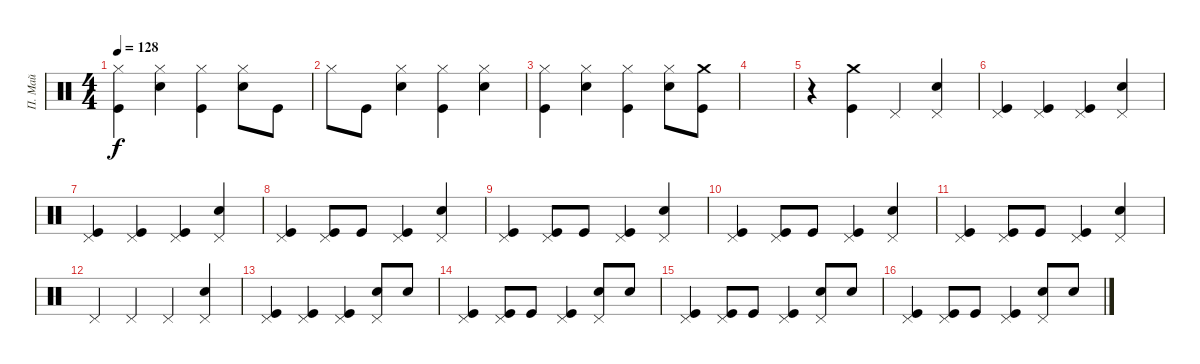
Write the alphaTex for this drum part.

\track ("П. Май" "П. Май") {instrument percussion}
\staff {score}
\articulation defaults
\ts (4 4)
\tempo 128
\clef neutral
\ks c
("Hi-Hat (closed)" "Kick (hit)").4{dy f} ("Hi-Hat (closed)" "Snare (hit) 2").4 ("Hi-Hat (closed)" "Kick (hit)").4 ("Hi-Hat (closed)" "Snare (hit) 2").8 "Kick (hit)".8 |
"Hi-Hat (closed)".8 "Kick (hit)".8 ("Hi-Hat (closed)" "Snare (hit) 2").4 ("Hi-Hat (closed)" "Kick (hit)").4 ("Hi-Hat (closed)" "Snare (hit) 2").4 |
("Hi-Hat (closed)" "Kick (hit)").4 ("Hi-Hat (closed)" "Snare (hit) 2").4 ("Hi-Hat (closed)" "Kick (hit)").4 ("Hi-Hat (closed)" "Snare (hit) 2").8 ("Crash medium (hit)" "Kick (hit)").8 |
|
r.4 ("Crash medium (hit)" "Kick (hit)").4 "Pedal Hi-Hat (hit)".4 ("Pedal Hi-Hat (hit)" "Snare (hit) 2").4 |
("Pedal Hi-Hat (hit)" "Kick (hit)").4 ("Pedal Hi-Hat (hit)" "Kick (hit)").4 ("Pedal Hi-Hat (hit)" "Kick (hit)").4 ("Pedal Hi-Hat (hit)" "Snare (hit) 2").4 |
("Pedal Hi-Hat (hit)" "Kick (hit)").4 ("Pedal Hi-Hat (hit)" "Kick (hit)").4 ("Pedal Hi-Hat (hit)" "Kick (hit)").4 ("Pedal Hi-Hat (hit)" "Snare (hit) 2").4 |
("Pedal Hi-Hat (hit)" "Kick (hit)").4 ("Pedal Hi-Hat (hit)" "Kick (hit)").8 "Kick (hit)".8 ("Pedal Hi-Hat (hit)" "Kick (hit)").4 ("Pedal Hi-Hat (hit)" "Snare (hit) 2").4 |
("Pedal Hi-Hat (hit)" "Kick (hit)").4 ("Pedal Hi-Hat (hit)" "Kick (hit)").8 "Kick (hit)".8 ("Pedal Hi-Hat (hit)" "Kick (hit)").4 ("Pedal Hi-Hat (hit)" "Snare (hit) 2").4 |
("Pedal Hi-Hat (hit)" "Kick (hit)").4 ("Pedal Hi-Hat (hit)" "Kick (hit)").8 "Kick (hit)".8 ("Pedal Hi-Hat (hit)" "Kick (hit)").4 ("Pedal Hi-Hat (hit)" "Snare (hit) 2").4 |
("Pedal Hi-Hat (hit)" "Kick (hit)").4 ("Pedal Hi-Hat (hit)" "Kick (hit)").8 "Kick (hit)".8 ("Pedal Hi-Hat (hit)" "Kick (hit)").4 ("Pedal Hi-Hat (hit)" "Snare (hit) 2").4 |
"Pedal Hi-Hat (hit)".4 "Pedal Hi-Hat (hit)".4 "Pedal Hi-Hat (hit)".4 ("Pedal Hi-Hat (hit)" "Snare (hit) 2").4 |
("Pedal Hi-Hat (hit)" "Kick (hit)").4 ("Pedal Hi-Hat (hit)" "Kick (hit)").4 ("Pedal Hi-Hat (hit)" "Kick (hit)").4 ("Pedal Hi-Hat (hit)" "Snare (hit) 2").8 "Snare (hit) 2".8 |
("Pedal Hi-Hat (hit)" "Kick (hit)").4 ("Pedal Hi-Hat (hit)" "Kick (hit)").8 "Kick (hit)".8 ("Pedal Hi-Hat (hit)" "Kick (hit)").4 ("Pedal Hi-Hat (hit)" "Snare (hit) 2").8 "Snare (hit) 2".8 |
("Pedal Hi-Hat (hit)" "Kick (hit)").4 ("Pedal Hi-Hat (hit)" "Kick (hit)").8 "Kick (hit)".8 ("Pedal Hi-Hat (hit)" "Kick (hit)").4 ("Pedal Hi-Hat (hit)" "Snare (hit) 2").8 "Snare (hit) 2".8 |
("Pedal Hi-Hat (hit)" "Kick (hit)").4 ("Pedal Hi-Hat (hit)" "Kick (hit)").8 "Kick (hit)".8 ("Pedal Hi-Hat (hit)" "Kick (hit)").4 ("Pedal Hi-Hat (hit)" "Snare (hit) 2").8 "Snare (hit) 2".8
